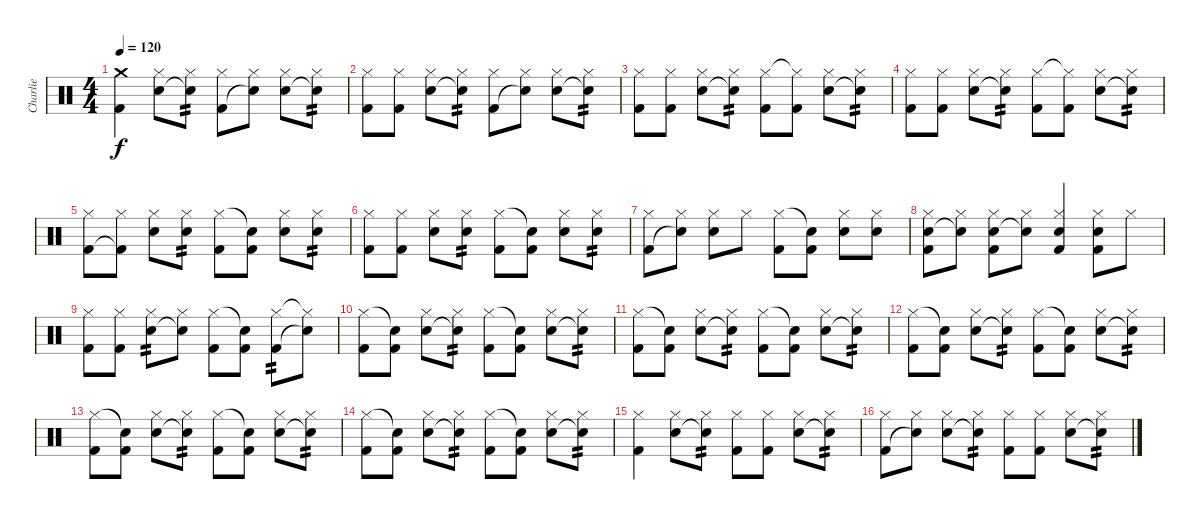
\track ("Charlie" "Charlie") {instrument percussion}
\staff {score}
\articulation defaults
\ts (4 4)
\tempo 120
\clef neutral
\ks c
("Crash medium (hit)" "Kick (hit) 2").4{dy f} ("Hi-Hat (closed)" "Snare (hit) 2").8 ("Hi-Hat (closed)" "Snare (hit)"{t}).8{tp 2} ("Hi-Hat (closed)" "Kick (hit) 2").8 ("Hi-Hat (closed)" "Snare (hit)"{t}).8 ("Hi-Hat (closed)" "Snare (hit) 2").8 ("Hi-Hat (closed)" "Snare (hit)"{t}).8{tp 2} |
("Hi-Hat (closed)" "Kick (hit) 2").8 ("Hi-Hat (closed)" "Kick (hit) 2").8 ("Hi-Hat (closed)" "Snare (hit) 2").8 ("Hi-Hat (closed)" "Snare (hit)"{t}).8{tp 2} ("Hi-Hat (closed)" "Kick (hit) 2").8 ("Hi-Hat (closed)" "Snare (hit)"{t}).8 ("Hi-Hat (closed)" "Snare (hit) 2").8 ("Hi-Hat (closed)" "Snare (hit)"{t}).8{tp 2} |
("Hi-Hat (closed)" "Kick (hit) 2").8 ("Hi-Hat (closed)" "Kick (hit) 2").8 ("Hi-Hat (closed)" "Snare (hit) 2").8 ("Hi-Hat (closed)" "Snare (hit)"{t}).8{tp 2} ("Hi-Hat (closed)" "Kick (hit) 2").8 ("Hi-Hat (closed)"{t} "Kick (hit) 2").8 ("Hi-Hat (closed)" "Snare (hit) 2").8 ("Hi-Hat (closed)" "Snare (hit)"{t}).8{tp 2} |
("Hi-Hat (closed)" "Kick (hit) 2").8 ("Hi-Hat (closed)" "Kick (hit) 2").8 ("Hi-Hat (closed)" "Snare (hit) 2").8 ("Hi-Hat (closed)" "Snare (hit)"{t}).8{tp 2} ("Hi-Hat (closed)" "Kick (hit) 2").8 ("Hi-Hat (closed)"{t} "Kick (hit) 2").8 ("Hi-Hat (closed)" "Snare (hit) 2").8 ("Hi-Hat (closed)" "Snare (hit)"{t}).8{tp 2} |
("Hi-Hat (closed)" "Kick (hit) 2").8 ("Hi-Hat (closed)" "Kick (hit) 2"{t}).8 ("Hi-Hat (closed)" "Snare (hit) 2").8 ("Hi-Hat (closed)" "Snare (hit) 2").8{tp 2} ("Hi-Hat (closed)" "Kick (hit) 2").8 ("Snare (hit)"{t} "Kick (hit) 2").8 ("Hi-Hat (closed)" "Snare (hit) 2").8 ("Hi-Hat (closed)" "Snare (hit) 2").8{tp 2} |
("Hi-Hat (closed)" "Kick (hit) 2").8 ("Hi-Hat (closed)" "Kick (hit) 2").8 ("Hi-Hat (closed)" "Snare (hit) 2").8 ("Hi-Hat (closed)" "Snare (hit) 2").8{tp 2} ("Hi-Hat (closed)" "Kick (hit) 2").8 ("Snare (hit)"{t} "Kick (hit) 2").8 ("Hi-Hat (closed)" "Snare (hit) 2").8 ("Hi-Hat (closed)" "Snare (hit) 2").8{tp 2} |
("Hi-Hat (closed)" "Kick (hit) 2").8 ("Hi-Hat (closed)" "Snare (hit)"{t}).8 ("Hi-Hat (closed)" "Snare (hit) 2").8 "Hi-Hat (closed)".8 ("Hi-Hat (closed)" "Kick (hit) 2").8 ("Snare (hit)"{t} "Kick (hit) 2").8 ("Hi-Hat (closed)" "Snare (hit) 2").8 ("Hi-Hat (closed)" "Snare (hit) 2").8 |
("Hi-Hat (closed)" "Snare (hit) 2" "Kick (hit) 2").8 ("Hi-Hat (closed)" "Snare (hit)"{t}).8 ("Hi-Hat (closed)" "Snare (hit) 2" "Kick (hit) 2").8 ("Hi-Hat (closed)" "Snare (hit)"{t}).8 ("Hi-Hat (closed)" "Snare (hit) 2" "Kick (hit) 2").4 ("Hi-Hat (closed)" "Snare (hit) 2" "Kick (hit) 2").8 "Hi-Hat (closed)".8 |
("Hi-Hat (closed)" "Kick (hit) 2").8 ("Hi-Hat (closed)" "Kick (hit) 2").8 ("Hi-Hat (closed)" "Snare (hit) 2").8{tp 2} ("Hi-Hat (closed)" "Snare (hit) 2"{t}).8 ("Hi-Hat (closed)" "Kick (hit) 2").8 ("Snare (hit)"{t} "Kick (hit) 2").8 ("Hi-Hat (closed)" "Kick (hit) 2").8{tp 2} ("Hi-Hat (closed)"{t} "Snare (hit)"{t}).8 |
("Hi-Hat (closed)" "Kick (hit) 2").8 ("Snare (hit)"{t} "Kick (hit) 2").8 ("Hi-Hat (closed)" "Snare (hit) 2").8 ("Hi-Hat (closed)" "Snare (hit)"{t}).8{tp 2} ("Hi-Hat (closed)" "Kick (hit) 2").8 ("Snare (hit)"{t} "Kick (hit) 2").8 ("Hi-Hat (closed)" "Snare (hit) 2").8 ("Hi-Hat (closed)" "Snare (hit)"{t}).8{tp 2} |
("Hi-Hat (closed)" "Kick (hit) 2").8 ("Snare (hit)"{t} "Kick (hit) 2").8 ("Hi-Hat (closed)" "Snare (hit) 2").8 ("Hi-Hat (closed)" "Snare (hit)"{t}).8{tp 2} ("Hi-Hat (closed)" "Kick (hit) 2").8 ("Snare (hit)"{t} "Kick (hit) 2").8 ("Hi-Hat (closed)" "Snare (hit) 2").8 ("Hi-Hat (closed)" "Snare (hit)"{t}).8{tp 2} |
("Hi-Hat (closed)" "Kick (hit) 2").8 ("Snare (hit)"{t} "Kick (hit) 2").8 ("Hi-Hat (closed)" "Snare (hit) 2").8 ("Hi-Hat (closed)" "Snare (hit)"{t}).8{tp 2} ("Hi-Hat (closed)" "Kick (hit) 2").8 ("Snare (hit)"{t} "Kick (hit) 2").8 ("Hi-Hat (closed)" "Snare (hit) 2").8 ("Hi-Hat (closed)" "Snare (hit)"{t}).8{tp 2} |
("Hi-Hat (closed)" "Kick (hit) 2").8 ("Snare (hit)"{t} "Kick (hit) 2").8 ("Hi-Hat (closed)" "Snare (hit) 2").8 ("Hi-Hat (closed)" "Snare (hit)"{t}).8{tp 2} ("Hi-Hat (closed)" "Kick (hit) 2").8 ("Snare (hit)"{t} "Kick (hit) 2").8 ("Hi-Hat (closed)" "Snare (hit) 2").8 ("Hi-Hat (closed)" "Snare (hit)"{t}).8{tp 2} |
("Hi-Hat (closed)" "Kick (hit) 2").8 ("Snare (hit)"{t} "Kick (hit) 2").8 ("Hi-Hat (closed)" "Snare (hit) 2").8 ("Hi-Hat (closed)" "Snare (hit)"{t}).8{tp 2} ("Hi-Hat (closed)" "Kick (hit) 2").8 ("Snare (hit)"{t} "Kick (hit) 2").8 ("Hi-Hat (closed)" "Snare (hit) 2").8 ("Hi-Hat (closed)" "Snare (hit)"{t}).8{tp 2} |
("Hi-Hat (closed)" "Kick (hit) 2").4 ("Hi-Hat (closed)" "Snare (hit) 2").8 ("Hi-Hat (closed)" "Snare (hit)"{t}).8{tp 2} ("Hi-Hat (closed)" "Kick (hit) 2").8 ("Hi-Hat (closed)" "Kick (hit) 2").8 ("Hi-Hat (closed)" "Snare (hit) 2").8 ("Hi-Hat (closed)" "Snare (hit)"{t}).8{tp 2} |
("Hi-Hat (closed)" "Kick (hit) 2").8 ("Hi-Hat (closed)" "Snare (hit)"{t}).8 ("Hi-Hat (closed)" "Snare (hit) 2").8 ("Hi-Hat (closed)" "Snare (hit)"{t}).8{tp 2} ("Hi-Hat (closed)" "Kick (hit) 2").8 ("Hi-Hat (closed)" "Kick (hit) 2").8 ("Hi-Hat (closed)" "Snare (hit) 2").8 ("Hi-Hat (closed)" "Snare (hit)"{t}).8{tp 2}
